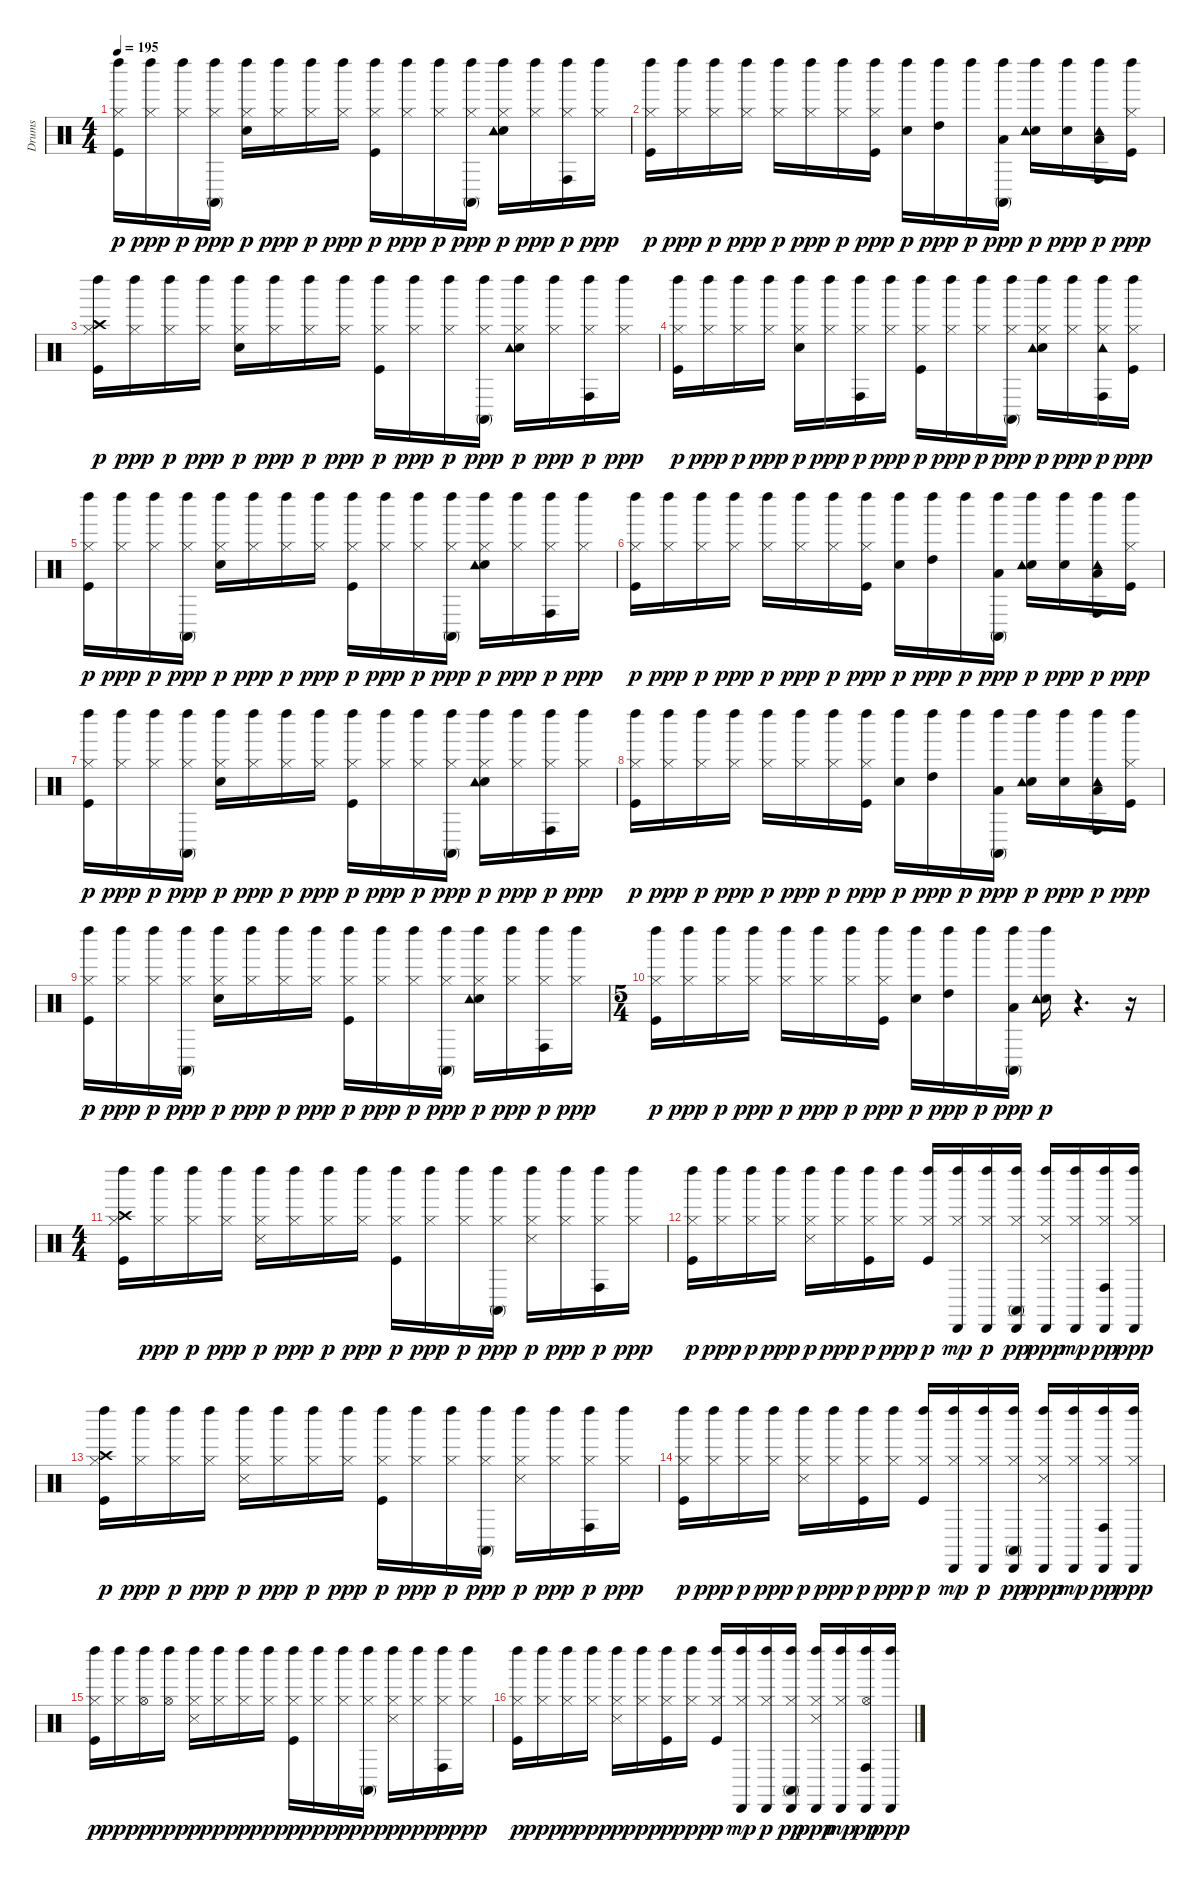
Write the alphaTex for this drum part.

\track ("Drums" "Drums") {instrument percussion}
\staff {score}
\articulation defaults
\ts (4 4)
\tempo 195
\clef neutral
\ks c
("Kick (hit)" "Hi-Hat (closed)" "Left Maraca (hit)").16{dy p} ("Hi-Hat (closed)" "Left Maraca (hit)").16{dy ppp} ("Hi-Hat (closed)" "Left Maraca (hit)").16{dy p} ("Hi-Hat (closed)" "Conga high (mute)" "Left Maraca (hit)").16{dy ppp} ("Snare (hit) 2" "Hi-Hat (closed)" "Left Maraca (hit)").16{dy p} ("Hi-Hat (closed)" "Left Maraca (hit)").16{dy ppp} ("Hi-Hat (closed)" "Left Maraca (hit)").16{dy p} ("Hi-Hat (closed)" "Left Maraca (hit)").16{dy ppp} ("Kick (hit)" "Hi-Hat (closed)" "Left Maraca (hit)").16{dy p} ("Hi-Hat (closed)" "Left Maraca (hit)").16{dy ppp} ("Hi-Hat (closed)" "Left Maraca (hit)").16{dy p} ("Hi-Hat (closed)" "Conga high (mute)" "Left Maraca (hit)").16{dy ppp} ("Snare (hit) 2" "Hi-Hat (closed)" "Tambourine (hit)" "Left Maraca (hit)").16{dy p} ("Hi-Hat (closed)" "Left Maraca (hit)").16{dy ppp} ("Hi-Hat (closed)" "Conga high (hit)" "Left Maraca (hit)").16{dy p} ("Hi-Hat (closed)" "Left Maraca (hit)").16{dy ppp} |
("Kick (hit)" "Hi-Hat (closed)" "Left Maraca (hit)").16{dy p} ("Hi-Hat (closed)" "Left Maraca (hit)").16{dy ppp} ("Hi-Hat (closed)" "Left Maraca (hit)").16{dy p} ("Hi-Hat (closed)" "Left Maraca (hit)").16{dy ppp} ("Hi-Hat (closed)" "Left Maraca (hit)").16{dy p} ("Hi-Hat (closed)" "Left Maraca (hit)").16{dy ppp} ("Hi-Hat (closed)" "Left Maraca (hit)").16{dy p} ("Kick (hit)" "Hi-Hat (closed)" "Left Maraca (hit)").16{dy ppp} ("Snare (hit) 2" "Left Maraca (hit)").16{dy p} ("High Tom (hit)" "Left Maraca (hit)").16{dy ppp} "Left Maraca (hit)".16{dy p} ("Low Tom (hit)" "Conga high (mute)" "Left Maraca (hit)").16{dy ppp} ("Snare (hit) 2" "Tambourine (hit)" "Left Maraca (hit)").16{dy p} ("Snare (hit) 2" "Left Maraca (hit)").16{dy ppp} ("Low Floor Tom (hit)" "Conga high (hit)" "Tambourine (hit)" "Left Maraca (hit)").16{dy p} ("Kick (hit)" "Hi-Hat (closed)" "Left Maraca (hit)").16{dy ppp} |
("Kick (hit)" "Hi-Hat (closed)" "Crash high (hit)" "Left Maraca (hit)").16{dy p} ("Hi-Hat (closed)" "Left Maraca (hit)").16{dy ppp} ("Hi-Hat (closed)" "Left Maraca (hit)").16{dy p} ("Hi-Hat (closed)" "Left Maraca (hit)").16{dy ppp} ("Snare (hit) 2" "Hi-Hat (closed)" "Left Maraca (hit)").16{dy p} ("Hi-Hat (closed)" "Left Maraca (hit)").16{dy ppp} ("Hi-Hat (closed)" "Left Maraca (hit)").16{dy p} ("Hi-Hat (closed)" "Left Maraca (hit)").16{dy ppp} ("Kick (hit)" "Hi-Hat (closed)" "Left Maraca (hit)").16{dy p} ("Hi-Hat (closed)" "Left Maraca (hit)").16{dy ppp} ("Hi-Hat (closed)" "Left Maraca (hit)").16{dy p} ("Hi-Hat (closed)" "Conga high (mute)" "Left Maraca (hit)").16{dy ppp} ("Snare (hit) 2" "Hi-Hat (closed)" "Tambourine (hit)" "Left Maraca (hit)").16{dy p} ("Hi-Hat (closed)" "Left Maraca (hit)").16{dy ppp} ("Hi-Hat (closed)" "Conga high (hit)" "Left Maraca (hit)").16{dy p} ("Hi-Hat (closed)" "Left Maraca (hit)").16{dy ppp} |
("Kick (hit)" "Hi-Hat (closed)" "Left Maraca (hit)").16{dy p} ("Hi-Hat (closed)" "Left Maraca (hit)").16{dy ppp} ("Hi-Hat (closed)" "Left Maraca (hit)").16{dy p} ("Hi-Hat (closed)" "Left Maraca (hit)").16{dy ppp} ("Snare (hit) 2" "Hi-Hat (closed)" "Left Maraca (hit)").16{dy p} ("Hi-Hat (closed)" "Left Maraca (hit)").16{dy ppp} ("Hi-Hat (closed)" "Conga high (hit)" "Left Maraca (hit)").16{dy p} ("Hi-Hat (closed)" "Left Maraca (hit)").16{dy ppp} ("Kick (hit)" "Hi-Hat (closed)" "Left Maraca (hit)").16{dy p} ("Hi-Hat (closed)" "Left Maraca (hit)").16{dy ppp} ("Hi-Hat (closed)" "Left Maraca (hit)").16{dy p} ("Hi-Hat (closed)" "Conga high (mute)" "Left Maraca (hit)").16{dy ppp} ("Snare (hit) 2" "Hi-Hat (closed)" "Tambourine (hit)" "Left Maraca (hit)").16{dy p} ("Hi-Hat (closed)" "Left Maraca (hit)").16{dy ppp} ("Hi-Hat (closed)" "Conga high (hit)" "Tambourine (hit)" "Left Maraca (hit)").16{dy p} ("Kick (hit)" "Hi-Hat (closed)" "Left Maraca (hit)").16{dy ppp} |
("Kick (hit)" "Hi-Hat (closed)" "Left Maraca (hit)").16{dy p} ("Hi-Hat (closed)" "Left Maraca (hit)").16{dy ppp} ("Hi-Hat (closed)" "Left Maraca (hit)").16{dy p} ("Hi-Hat (closed)" "Conga high (mute)" "Left Maraca (hit)").16{dy ppp} ("Snare (hit) 2" "Hi-Hat (closed)" "Left Maraca (hit)").16{dy p} ("Hi-Hat (closed)" "Left Maraca (hit)").16{dy ppp} ("Hi-Hat (closed)" "Left Maraca (hit)").16{dy p} ("Hi-Hat (closed)" "Left Maraca (hit)").16{dy ppp} ("Kick (hit)" "Hi-Hat (closed)" "Left Maraca (hit)").16{dy p} ("Hi-Hat (closed)" "Left Maraca (hit)").16{dy ppp} ("Hi-Hat (closed)" "Left Maraca (hit)").16{dy p} ("Hi-Hat (closed)" "Conga high (mute)" "Left Maraca (hit)").16{dy ppp} ("Snare (hit) 2" "Hi-Hat (closed)" "Tambourine (hit)" "Left Maraca (hit)").16{dy p} ("Hi-Hat (closed)" "Left Maraca (hit)").16{dy ppp} ("Hi-Hat (closed)" "Conga high (hit)" "Left Maraca (hit)").16{dy p} ("Hi-Hat (closed)" "Left Maraca (hit)").16{dy ppp} |
("Kick (hit)" "Hi-Hat (closed)" "Left Maraca (hit)").16{dy p} ("Hi-Hat (closed)" "Left Maraca (hit)").16{dy ppp} ("Hi-Hat (closed)" "Left Maraca (hit)").16{dy p} ("Hi-Hat (closed)" "Left Maraca (hit)").16{dy ppp} ("Hi-Hat (closed)" "Left Maraca (hit)").16{dy p} ("Hi-Hat (closed)" "Left Maraca (hit)").16{dy ppp} ("Hi-Hat (closed)" "Left Maraca (hit)").16{dy p} ("Kick (hit)" "Hi-Hat (closed)" "Left Maraca (hit)").16{dy ppp} ("Snare (hit) 2" "Left Maraca (hit)").16{dy p} ("High Tom (hit)" "Left Maraca (hit)").16{dy ppp} "Left Maraca (hit)".16{dy p} ("Low Tom (hit)" "Conga high (mute)" "Left Maraca (hit)").16{dy ppp} ("Snare (hit) 2" "Tambourine (hit)" "Left Maraca (hit)").16{dy p} ("Snare (hit) 2" "Left Maraca (hit)").16{dy ppp} ("Low Floor Tom (hit)" "Conga high (hit)" "Tambourine (hit)" "Left Maraca (hit)").16{dy p} ("Kick (hit)" "Hi-Hat (closed)" "Left Maraca (hit)").16{dy ppp} |
("Kick (hit)" "Hi-Hat (closed)" "Left Maraca (hit)").16{dy p} ("Hi-Hat (closed)" "Left Maraca (hit)").16{dy ppp} ("Hi-Hat (closed)" "Left Maraca (hit)").16{dy p} ("Hi-Hat (closed)" "Conga high (mute)" "Left Maraca (hit)").16{dy ppp} ("Snare (hit) 2" "Hi-Hat (closed)" "Left Maraca (hit)").16{dy p} ("Hi-Hat (closed)" "Left Maraca (hit)").16{dy ppp} ("Hi-Hat (closed)" "Left Maraca (hit)").16{dy p} ("Hi-Hat (closed)" "Left Maraca (hit)").16{dy ppp} ("Kick (hit)" "Hi-Hat (closed)" "Left Maraca (hit)").16{dy p} ("Hi-Hat (closed)" "Left Maraca (hit)").16{dy ppp} ("Hi-Hat (closed)" "Left Maraca (hit)").16{dy p} ("Hi-Hat (closed)" "Conga high (mute)" "Left Maraca (hit)").16{dy ppp} ("Snare (hit) 2" "Hi-Hat (closed)" "Tambourine (hit)" "Left Maraca (hit)").16{dy p} ("Hi-Hat (closed)" "Left Maraca (hit)").16{dy ppp} ("Hi-Hat (closed)" "Conga high (hit)" "Left Maraca (hit)").16{dy p} ("Hi-Hat (closed)" "Left Maraca (hit)").16{dy ppp} |
("Kick (hit)" "Hi-Hat (closed)" "Left Maraca (hit)").16{dy p} ("Hi-Hat (closed)" "Left Maraca (hit)").16{dy ppp} ("Hi-Hat (closed)" "Left Maraca (hit)").16{dy p} ("Hi-Hat (closed)" "Left Maraca (hit)").16{dy ppp} ("Hi-Hat (closed)" "Left Maraca (hit)").16{dy p} ("Hi-Hat (closed)" "Left Maraca (hit)").16{dy ppp} ("Hi-Hat (closed)" "Left Maraca (hit)").16{dy p} ("Kick (hit)" "Hi-Hat (closed)" "Left Maraca (hit)").16{dy ppp} ("Snare (hit) 2" "Left Maraca (hit)").16{dy p} ("High Tom (hit)" "Left Maraca (hit)").16{dy ppp} "Left Maraca (hit)".16{dy p} ("Low Tom (hit)" "Conga high (mute)" "Left Maraca (hit)").16{dy ppp} ("Snare (hit) 2" "Tambourine (hit)" "Left Maraca (hit)").16{dy p} ("Snare (hit) 2" "Left Maraca (hit)").16{dy ppp} ("Low Floor Tom (hit)" "Conga high (hit)" "Tambourine (hit)" "Left Maraca (hit)").16{dy p} ("Kick (hit)" "Hi-Hat (closed)" "Left Maraca (hit)").16{dy ppp} |
("Kick (hit)" "Hi-Hat (closed)" "Left Maraca (hit)").16{dy p} ("Hi-Hat (closed)" "Left Maraca (hit)").16{dy ppp} ("Hi-Hat (closed)" "Left Maraca (hit)").16{dy p} ("Hi-Hat (closed)" "Conga high (mute)" "Left Maraca (hit)").16{dy ppp} ("Snare (hit) 2" "Hi-Hat (closed)" "Left Maraca (hit)").16{dy p} ("Hi-Hat (closed)" "Left Maraca (hit)").16{dy ppp} ("Hi-Hat (closed)" "Left Maraca (hit)").16{dy p} ("Hi-Hat (closed)" "Left Maraca (hit)").16{dy ppp} ("Kick (hit)" "Hi-Hat (closed)" "Left Maraca (hit)").16{dy p} ("Hi-Hat (closed)" "Left Maraca (hit)").16{dy ppp} ("Hi-Hat (closed)" "Left Maraca (hit)").16{dy p} ("Hi-Hat (closed)" "Conga high (mute)" "Left Maraca (hit)").16{dy ppp} ("Snare (hit) 2" "Hi-Hat (closed)" "Tambourine (hit)" "Left Maraca (hit)").16{dy p} ("Hi-Hat (closed)" "Left Maraca (hit)").16{dy ppp} ("Hi-Hat (closed)" "Conga high (hit)" "Left Maraca (hit)").16{dy p} ("Hi-Hat (closed)" "Left Maraca (hit)").16{dy ppp} |
\ts (5 4)
("Kick (hit)" "Hi-Hat (closed)" "Left Maraca (hit)").16{dy p} ("Hi-Hat (closed)" "Left Maraca (hit)").16{dy ppp} ("Hi-Hat (closed)" "Left Maraca (hit)").16{dy p} ("Hi-Hat (closed)" "Left Maraca (hit)").16{dy ppp} ("Hi-Hat (closed)" "Left Maraca (hit)").16{dy p} ("Hi-Hat (closed)" "Left Maraca (hit)").16{dy ppp} ("Hi-Hat (closed)" "Left Maraca (hit)").16{dy p} ("Kick (hit)" "Hi-Hat (closed)" "Left Maraca (hit)").16{dy ppp} ("Snare (hit) 2" "Left Maraca (hit)").16{dy p} ("High Tom (hit)" "Left Maraca (hit)").16{dy ppp} "Left Maraca (hit)".16{dy p} ("Low Tom (hit)" "Conga high (mute)" "Left Maraca (hit)").16{dy ppp} ("Snare (hit) 2" "Tambourine (hit)" "Left Maraca (hit)").16{dy p} r.4{d} r.16 |
\ts (4 4)
("Kick (hit)" "Hi-Hat (closed)" "Crash high (hit)" "Left Maraca (hit)").16 ("Hi-Hat (closed)" "Left Maraca (hit)").16{dy ppp} ("Hi-Hat (closed)" "Left Maraca (hit)").16{dy p} ("Hi-Hat (closed)" "Left Maraca (hit)").16{dy ppp} ("Hi-Hat (closed)" "Snare (side stick) 3" "Left Maraca (hit)").16{dy p} ("Hi-Hat (closed)" "Left Maraca (hit)").16{dy ppp} ("Hi-Hat (closed)" "Left Maraca (hit)").16{dy p} ("Hi-Hat (closed)" "Left Maraca (hit)").16{dy ppp} ("Kick (hit)" "Hi-Hat (closed)" "Left Maraca (hit)").16{dy p} ("Hi-Hat (closed)" "Left Maraca (hit)").16{dy ppp} ("Hi-Hat (closed)" "Left Maraca (hit)").16{dy p} ("Hi-Hat (closed)" "Conga high (mute)" "Left Maraca (hit)").16{dy ppp} ("Hi-Hat (closed)" "Snare (side stick) 3" "Left Maraca (hit)").16{dy p} ("Hi-Hat (closed)" "Left Maraca (hit)").16{dy ppp} ("Hi-Hat (closed)" "Conga high (hit)" "Left Maraca (hit)").16{dy p} ("Hi-Hat (closed)" "Left Maraca (hit)").16{dy ppp} |
("Kick (hit)" "Hi-Hat (closed)" "Left Maraca (hit)").16{dy p} ("Hi-Hat (closed)" "Left Maraca (hit)").16{dy ppp} ("Hi-Hat (closed)" "Left Maraca (hit)").16{dy p} ("Hi-Hat (closed)" "Left Maraca (hit)").16{dy ppp} ("Hi-Hat (closed)" "Snare (side stick) 3" "Left Maraca (hit)").16{dy p} ("Hi-Hat (closed)" "Left Maraca (hit)").16{dy ppp} ("Kick (hit)" "Hi-Hat (closed)" "Left Maraca (hit)").16{dy p} ("Hi-Hat (closed)" "Left Maraca (hit)").16{dy ppp} ("Kick (hit)" "Hi-Hat (closed)" "Left Maraca (hit)").16{dy p} ("Hi-Hat (closed)" "Left Maraca (hit)" "Cabasa (hit)").16{dy mp} ("Hi-Hat (closed)" "Left Maraca (hit)" "Cabasa (hit)").16{dy p} ("Hi-Hat (closed)" "Conga high (mute)" "Left Maraca (hit)" "Cabasa (hit)").16{dy pp} ("Hi-Hat (closed)" "Snare (side stick) 3" "Left Maraca (hit)" "Cabasa (hit)").16{dy ppp} ("Hi-Hat (closed)" "Left Maraca (hit)" "Cabasa (hit)").16{dy mp} ("Hi-Hat (closed)" "Conga high (hit)" "Left Maraca (hit)" "Cabasa (hit)").16{dy pp} ("Hi-Hat (closed)" "Left Maraca (hit)" "Cabasa (hit)").16{dy ppp} |
("Kick (hit)" "Hi-Hat (closed)" "Crash high (hit)" "Left Maraca (hit)").16{dy p} ("Hi-Hat (closed)" "Left Maraca (hit)").16{dy ppp} ("Hi-Hat (closed)" "Left Maraca (hit)").16{dy p} ("Hi-Hat (closed)" "Left Maraca (hit)").16{dy ppp} ("Hi-Hat (closed)" "Snare (side stick) 3" "Left Maraca (hit)").16{dy p} ("Hi-Hat (closed)" "Left Maraca (hit)").16{dy ppp} ("Hi-Hat (closed)" "Left Maraca (hit)").16{dy p} ("Hi-Hat (closed)" "Left Maraca (hit)").16{dy ppp} ("Kick (hit)" "Hi-Hat (closed)" "Left Maraca (hit)").16{dy p} ("Hi-Hat (closed)" "Left Maraca (hit)").16{dy ppp} ("Hi-Hat (closed)" "Left Maraca (hit)").16{dy p} ("Hi-Hat (closed)" "Conga high (mute)" "Left Maraca (hit)").16{dy ppp} ("Hi-Hat (closed)" "Snare (side stick) 3" "Left Maraca (hit)").16{dy p} ("Hi-Hat (closed)" "Left Maraca (hit)").16{dy ppp} ("Hi-Hat (closed)" "Conga high (hit)" "Left Maraca (hit)").16{dy p} ("Hi-Hat (closed)" "Left Maraca (hit)").16{dy ppp} |
("Kick (hit)" "Hi-Hat (closed)" "Left Maraca (hit)").16{dy p} ("Hi-Hat (closed)" "Left Maraca (hit)").16{dy ppp} ("Hi-Hat (closed)" "Left Maraca (hit)").16{dy p} ("Hi-Hat (closed)" "Left Maraca (hit)").16{dy ppp} ("Hi-Hat (closed)" "Snare (side stick) 3" "Left Maraca (hit)").16{dy p} ("Hi-Hat (closed)" "Left Maraca (hit)").16{dy ppp} ("Kick (hit)" "Hi-Hat (closed)" "Left Maraca (hit)").16{dy p} ("Hi-Hat (closed)" "Left Maraca (hit)").16{dy ppp} ("Kick (hit)" "Hi-Hat (closed)" "Left Maraca (hit)").16{dy p} ("Hi-Hat (closed)" "Left Maraca (hit)" "Cabasa (hit)").16{dy mp} ("Hi-Hat (closed)" "Left Maraca (hit)" "Cabasa (hit)").16{dy p} ("Hi-Hat (closed)" "Conga high (mute)" "Left Maraca (hit)" "Cabasa (hit)").16{dy pp} ("Hi-Hat (closed)" "Snare (side stick) 3" "Left Maraca (hit)" "Cabasa (hit)").16{dy ppp} ("Hi-Hat (closed)" "Left Maraca (hit)" "Cabasa (hit)").16{dy mp} ("Hi-Hat (closed)" "Conga high (hit)" "Left Maraca (hit)" "Cabasa (hit)").16{dy pp} ("Hi-Hat (closed)" "Left Maraca (hit)" "Cabasa (hit)").16{dy ppp} |
("Kick (hit)" "Hi-Hat (closed)" "Left Maraca (hit)").16{dy p} ("Hi-Hat (closed)" "Left Maraca (hit)").16{dy ppp} ("Hi-Hat (open)" "Left Maraca (hit)").16{dy p} ("Hi-Hat (open)" "Left Maraca (hit)").16{dy ppp} ("Hi-Hat (closed)" "Snare (side stick) 3" "Left Maraca (hit)").16{dy p} ("Hi-Hat (closed)" "Left Maraca (hit)").16{dy ppp} ("Hi-Hat (closed)" "Left Maraca (hit)").16{dy p} ("Hi-Hat (closed)" "Left Maraca (hit)").16{dy ppp} ("Kick (hit)" "Hi-Hat (closed)" "Left Maraca (hit)").16{dy p} ("Hi-Hat (closed)" "Left Maraca (hit)").16{dy ppp} ("Hi-Hat (closed)" "Left Maraca (hit)").16{dy p} ("Hi-Hat (closed)" "Conga high (mute)" "Left Maraca (hit)").16{dy ppp} ("Hi-Hat (closed)" "Snare (side stick) 3" "Left Maraca (hit)").16{dy p} ("Hi-Hat (closed)" "Left Maraca (hit)").16{dy ppp} ("Hi-Hat (closed)" "Conga high (hit)" "Left Maraca (hit)").16{dy p} ("Hi-Hat (closed)" "Left Maraca (hit)").16{dy ppp} |
("Kick (hit)" "Hi-Hat (closed)" "Left Maraca (hit)").16{dy p} ("Hi-Hat (closed)" "Left Maraca (hit)").16{dy ppp} ("Hi-Hat (closed)" "Left Maraca (hit)").16{dy p} ("Hi-Hat (closed)" "Left Maraca (hit)").16{dy ppp} ("Hi-Hat (closed)" "Snare (side stick) 3" "Left Maraca (hit)").16{dy p} ("Hi-Hat (closed)" "Left Maraca (hit)").16{dy ppp} ("Kick (hit)" "Hi-Hat (closed)" "Left Maraca (hit)").16{dy p} ("Hi-Hat (closed)" "Left Maraca (hit)").16{dy ppp} ("Kick (hit)" "Hi-Hat (closed)" "Left Maraca (hit)").16{dy p} ("Hi-Hat (closed)" "Left Maraca (hit)" "Cabasa (hit)").16{dy mp} ("Hi-Hat (closed)" "Left Maraca (hit)" "Cabasa (hit)").16{dy p} ("Hi-Hat (closed)" "Conga high (mute)" "Left Maraca (hit)" "Cabasa (hit)").16{dy pp} ("Hi-Hat (closed)" "Snare (side stick) 3" "Left Maraca (hit)" "Cabasa (hit)").16{dy ppp} ("Hi-Hat (closed)" "Left Maraca (hit)" "Cabasa (hit)").16{dy mp} ("Hi-Hat (open)" "Conga high (hit)" "Left Maraca (hit)" "Cabasa (hit)").16{dy pp} ("Left Maraca (hit)" "Cabasa (hit)").16{dy ppp}
